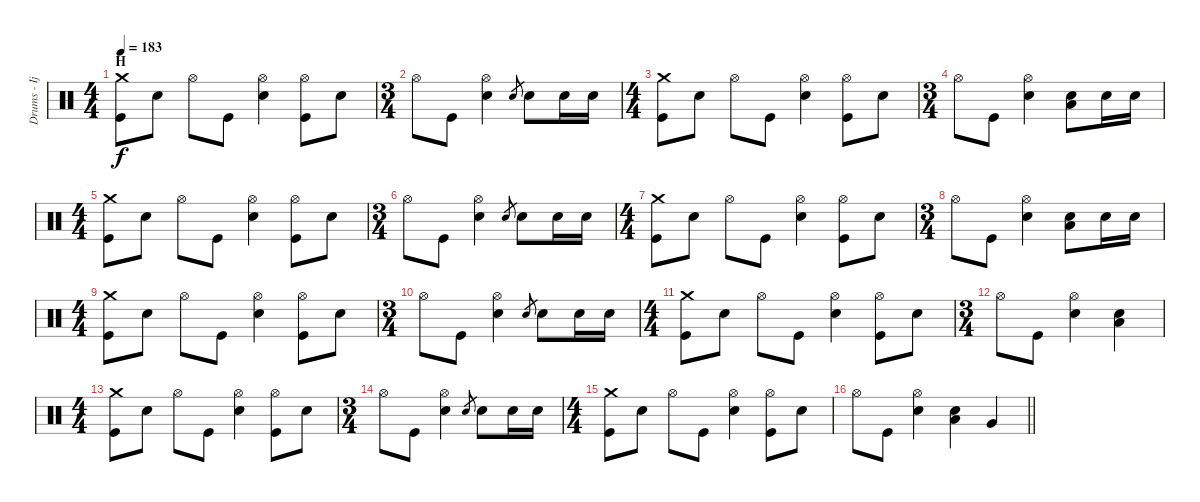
\track ("Drums - Ijichi" "Drums - Ij") {instrument percussion}
\staff {score}
\articulation defaults
\ts (4 4)
\section ("" "H")
\tempo 183
\clef neutral
\ks c
("Crash medium (hit)" "Kick (hit)").8{dy f} "Electric Snare (hit)".8 "Hi-Hat (open)".8 "Kick (hit)".8 ("Hi-Hat (open)" "Electric Snare (hit)").4 ("Hi-Hat (open)" "Kick (hit)").8 "Electric Snare (hit)".8 |
\ts (3 4)
"Hi-Hat (open)".8 "Kick (hit)".8 ("Hi-Hat (open)" "Electric Snare (hit)").4 "Electric Snare (hit)".8{gr} "Electric Snare (hit)".8 "Electric Snare (hit)".16 "Electric Snare (hit)".16 |
\ts (4 4)
("Crash medium (hit)" "Kick (hit)").8 "Electric Snare (hit)".8 "Hi-Hat (open)".8 "Kick (hit)".8 ("Hi-Hat (open)" "Electric Snare (hit)").4 ("Hi-Hat (open)" "Kick (hit)").8 "Electric Snare (hit)".8 |
\ts (3 4)
"Hi-Hat (open)".8 "Kick (hit)".8 ("Hi-Hat (open)" "Electric Snare (hit)").4 ("Electric Snare (hit)" "Low Tom (hit)").8 "Electric Snare (hit)".16 "Electric Snare (hit)".16 |
\ts (4 4)
("Crash medium (hit)" "Kick (hit)").8 "Electric Snare (hit)".8 "Hi-Hat (open)".8 "Kick (hit)".8 ("Hi-Hat (open)" "Electric Snare (hit)").4 ("Hi-Hat (open)" "Kick (hit)").8 "Electric Snare (hit)".8 |
\ts (3 4)
"Hi-Hat (open)".8 "Kick (hit)".8 ("Hi-Hat (open)" "Electric Snare (hit)").4 "Electric Snare (hit)".8{gr} "Electric Snare (hit)".8 "Electric Snare (hit)".16 "Electric Snare (hit)".16 |
\ts (4 4)
("Crash medium (hit)" "Kick (hit)").8 "Electric Snare (hit)".8 "Hi-Hat (open)".8 "Kick (hit)".8 ("Hi-Hat (open)" "Electric Snare (hit)").4 ("Hi-Hat (open)" "Kick (hit)").8 "Electric Snare (hit)".8 |
\ts (3 4)
"Hi-Hat (open)".8 "Kick (hit)".8 ("Hi-Hat (open)" "Electric Snare (hit)").4 ("Electric Snare (hit)" "Low Tom (hit)").8 "Electric Snare (hit)".16 "Electric Snare (hit)".16 |
\ts (4 4)
("Crash medium (hit)" "Kick (hit)").8 "Electric Snare (hit)".8 "Hi-Hat (open)".8 "Kick (hit)".8 ("Hi-Hat (open)" "Electric Snare (hit)").4 ("Hi-Hat (open)" "Kick (hit)").8 "Electric Snare (hit)".8 |
\ts (3 4)
"Hi-Hat (open)".8 "Kick (hit)".8 ("Hi-Hat (open)" "Electric Snare (hit)").4 "Electric Snare (hit)".8{gr} "Electric Snare (hit)".8 "Electric Snare (hit)".16 "Electric Snare (hit)".16 |
\ts (4 4)
("Crash medium (hit)" "Kick (hit)").8 "Electric Snare (hit)".8 "Hi-Hat (open)".8 "Kick (hit)".8 ("Hi-Hat (open)" "Electric Snare (hit)").4 ("Hi-Hat (open)" "Kick (hit)").8 "Electric Snare (hit)".8 |
\ts (3 4)
"Hi-Hat (open)".8 "Kick (hit)".8 ("Hi-Hat (open)" "Electric Snare (hit)").4 ("Electric Snare (hit)" "Low Tom (hit)").4 |
\ts (4 4)
("Crash medium (hit)" "Kick (hit)").8 "Electric Snare (hit)".8 "Hi-Hat (open)".8 "Kick (hit)".8 ("Hi-Hat (open)" "Electric Snare (hit)").4 ("Hi-Hat (open)" "Kick (hit)").8 "Electric Snare (hit)".8 |
\ts (3 4)
"Hi-Hat (open)".8 "Kick (hit)".8 ("Hi-Hat (open)" "Electric Snare (hit)").4 "Electric Snare (hit)".8{gr} "Electric Snare (hit)".8 "Electric Snare (hit)".16 "Electric Snare (hit)".16 |
\ts (4 4)
("Crash medium (hit)" "Kick (hit)").8 "Electric Snare (hit)".8 "Hi-Hat (open)".8 "Kick (hit)".8 ("Hi-Hat (open)" "Electric Snare (hit)").4 ("Hi-Hat (open)" "Kick (hit)").8 "Electric Snare (hit)".8 |
\barLineRight lightlight "Hi-Hat (open)".8 "Kick (hit)".8
("Hi-Hat (open)" "Electric Snare (hit)").4 ("Electric Snare (hit)" "Low Tom (hit)").4 "Very Low Tom (hit)".4
